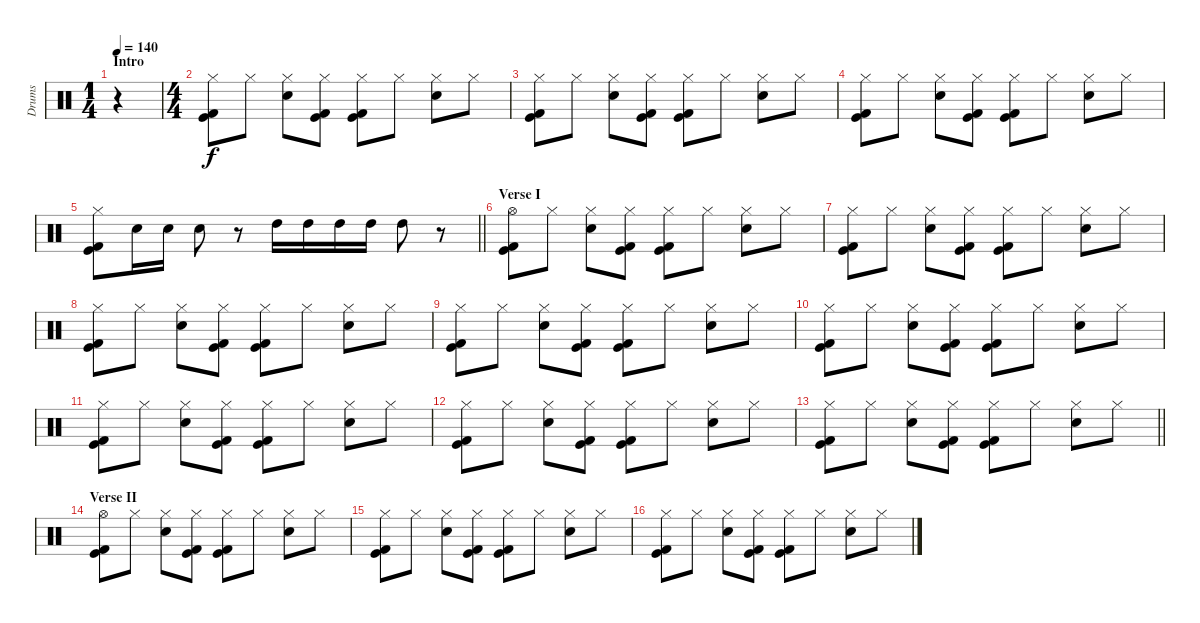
\track ("Drums" "Drums") {instrument percussion}
\staff {score}
\articulation defaults
\ts (1 4)
\section ("" "Intro")
\tempo 140
\clef neutral
\ks c
r.4{dy f} |
\ts (4 4)
("Hi-Hat (closed)" "Kick (hit) 2" "Kick (hit)").8 "Hi-Hat (closed)".8 ("Hi-Hat (closed)" "Snare (hit) 2").8 ("Hi-Hat (closed)" "Kick (hit) 2" "Kick (hit)").8 ("Hi-Hat (closed)" "Kick (hit) 2" "Kick (hit)").8 "Hi-Hat (closed)".8 ("Hi-Hat (closed)" "Snare (hit) 2").8 "Hi-Hat (closed)".8 |
("Hi-Hat (closed)" "Kick (hit) 2" "Kick (hit)").8 "Hi-Hat (closed)".8 ("Hi-Hat (closed)" "Snare (hit) 2").8 ("Hi-Hat (closed)" "Kick (hit) 2" "Kick (hit)").8 ("Hi-Hat (closed)" "Kick (hit) 2" "Kick (hit)").8 "Hi-Hat (closed)".8 ("Hi-Hat (closed)" "Snare (hit) 2").8 "Hi-Hat (closed)".8 |
("Hi-Hat (closed)" "Kick (hit) 2" "Kick (hit)").8 "Hi-Hat (closed)".8 ("Hi-Hat (closed)" "Snare (hit) 2").8 ("Hi-Hat (closed)" "Kick (hit) 2" "Kick (hit)").8 ("Hi-Hat (closed)" "Kick (hit) 2" "Kick (hit)").8 "Hi-Hat (closed)".8 ("Hi-Hat (closed)" "Snare (hit) 2").8 "Hi-Hat (closed)".8 |
\barLineRight lightlight
("Hi-Hat (closed)" "Kick (hit) 2" "Kick (hit)").8 "Snare (hit) 2".16 "Snare (hit) 2".16 "Snare (hit) 2".8 r.8 "High Tom (hit)".16 "High Tom (hit)".16 "High Tom (hit)".16 "High Tom (hit)".16 "High Tom (hit)".8 r.8 |
\section ("" "Verse I")
("Hi-Hat (open)" "Kick (hit) 2" "Kick (hit)").8 "Hi-Hat (closed)".8 ("Hi-Hat (closed)" "Snare (hit) 2").8 ("Hi-Hat (closed)" "Kick (hit) 2" "Kick (hit)").8 ("Hi-Hat (closed)" "Kick (hit) 2" "Kick (hit)").8 "Hi-Hat (closed)".8 ("Hi-Hat (closed)" "Snare (hit) 2").8 "Hi-Hat (closed)".8 |
("Hi-Hat (closed)" "Kick (hit) 2" "Kick (hit)").8 "Hi-Hat (closed)".8 ("Hi-Hat (closed)" "Snare (hit) 2").8 ("Hi-Hat (closed)" "Kick (hit) 2" "Kick (hit)").8 ("Hi-Hat (closed)" "Kick (hit) 2" "Kick (hit)").8 "Hi-Hat (closed)".8 ("Hi-Hat (closed)" "Snare (hit) 2").8 "Hi-Hat (closed)".8 |
("Hi-Hat (closed)" "Kick (hit) 2" "Kick (hit)").8 "Hi-Hat (closed)".8 ("Hi-Hat (closed)" "Snare (hit) 2").8 ("Hi-Hat (closed)" "Kick (hit) 2" "Kick (hit)").8 ("Hi-Hat (closed)" "Kick (hit) 2" "Kick (hit)").8 "Hi-Hat (closed)".8 ("Hi-Hat (closed)" "Snare (hit) 2").8 "Hi-Hat (closed)".8 |
("Hi-Hat (closed)" "Kick (hit) 2" "Kick (hit)").8 "Hi-Hat (closed)".8 ("Hi-Hat (closed)" "Snare (hit) 2").8 ("Hi-Hat (closed)" "Kick (hit) 2" "Kick (hit)").8 ("Hi-Hat (closed)" "Kick (hit) 2" "Kick (hit)").8 "Hi-Hat (closed)".8 ("Hi-Hat (closed)" "Snare (hit) 2").8 "Hi-Hat (closed)".8 |
("Hi-Hat (closed)" "Kick (hit) 2" "Kick (hit)").8 "Hi-Hat (closed)".8 ("Hi-Hat (closed)" "Snare (hit) 2").8 ("Hi-Hat (closed)" "Kick (hit) 2" "Kick (hit)").8 ("Hi-Hat (closed)" "Kick (hit) 2" "Kick (hit)").8 "Hi-Hat (closed)".8 ("Hi-Hat (closed)" "Snare (hit) 2").8 "Hi-Hat (closed)".8 |
("Hi-Hat (closed)" "Kick (hit) 2" "Kick (hit)").8 "Hi-Hat (closed)".8 ("Hi-Hat (closed)" "Snare (hit) 2").8 ("Hi-Hat (closed)" "Kick (hit) 2" "Kick (hit)").8 ("Hi-Hat (closed)" "Kick (hit) 2" "Kick (hit)").8 "Hi-Hat (closed)".8 ("Hi-Hat (closed)" "Snare (hit) 2").8 "Hi-Hat (closed)".8 |
("Hi-Hat (closed)" "Kick (hit) 2" "Kick (hit)").8 "Hi-Hat (closed)".8 ("Hi-Hat (closed)" "Snare (hit) 2").8 ("Hi-Hat (closed)" "Kick (hit) 2" "Kick (hit)").8 ("Hi-Hat (closed)" "Kick (hit) 2" "Kick (hit)").8 "Hi-Hat (closed)".8 ("Hi-Hat (closed)" "Snare (hit) 2").8 "Hi-Hat (closed)".8 |
\barLineRight lightlight
("Hi-Hat (closed)" "Kick (hit) 2" "Kick (hit)").8 "Hi-Hat (closed)".8 ("Hi-Hat (closed)" "Snare (hit) 2").8 ("Hi-Hat (closed)" "Kick (hit) 2" "Kick (hit)").8 ("Hi-Hat (closed)" "Kick (hit) 2" "Kick (hit)").8 "Hi-Hat (closed)".8 ("Hi-Hat (closed)" "Snare (hit) 2").8 "Hi-Hat (closed)".8 |
\section ("" "Verse II")
("Hi-Hat (open)" "Kick (hit) 2" "Kick (hit)").8 "Hi-Hat (closed)".8 ("Hi-Hat (closed)" "Snare (hit) 2").8 ("Hi-Hat (closed)" "Kick (hit) 2" "Kick (hit)").8 ("Hi-Hat (closed)" "Kick (hit) 2" "Kick (hit)").8 "Hi-Hat (closed)".8 ("Hi-Hat (closed)" "Snare (hit) 2").8 "Hi-Hat (closed)".8 |
("Hi-Hat (closed)" "Kick (hit) 2" "Kick (hit)").8 "Hi-Hat (closed)".8 ("Hi-Hat (closed)" "Snare (hit) 2").8 ("Hi-Hat (closed)" "Kick (hit) 2" "Kick (hit)").8 ("Hi-Hat (closed)" "Kick (hit) 2" "Kick (hit)").8 "Hi-Hat (closed)".8 ("Hi-Hat (closed)" "Snare (hit) 2").8 "Hi-Hat (closed)".8 |
("Hi-Hat (closed)" "Kick (hit) 2" "Kick (hit)").8 "Hi-Hat (closed)".8 ("Hi-Hat (closed)" "Snare (hit) 2").8 ("Hi-Hat (closed)" "Kick (hit) 2" "Kick (hit)").8 ("Hi-Hat (closed)" "Kick (hit) 2" "Kick (hit)").8 "Hi-Hat (closed)".8 ("Hi-Hat (closed)" "Snare (hit) 2").8 "Hi-Hat (closed)".8
